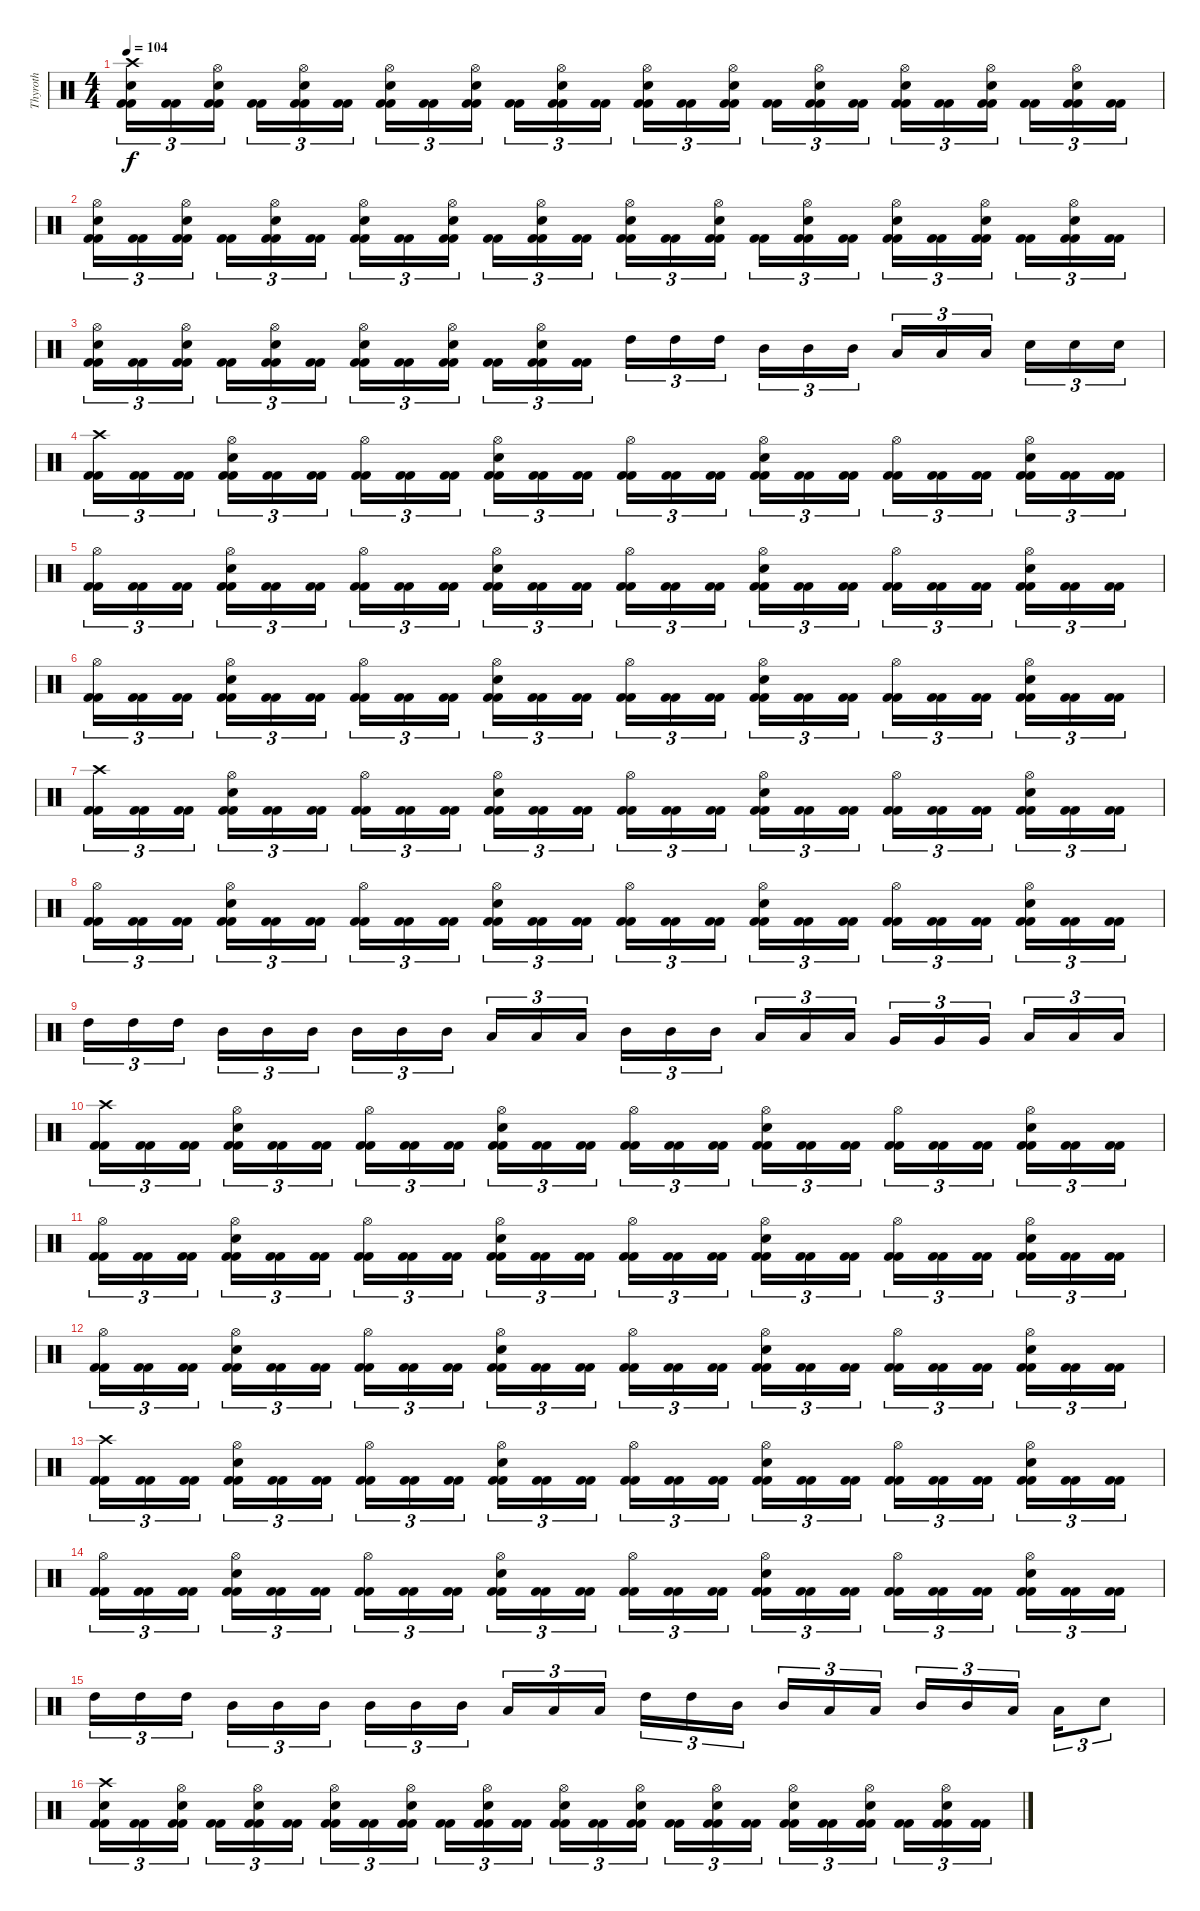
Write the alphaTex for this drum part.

\track ("Thyroth" "Thyroth") {instrument percussion}
\staff {score}
\articulation defaults
\ts (4 4)
\tempo 104
\clef neutral
\ks c
("Kick (hit) 2" "Kick (hit) 2" "Snare (hit) 2" "Crash high (hit)").16{tu (3 2) dy f} ("Kick (hit) 2" "Kick (hit) 2").16{tu (3 2)} ("Kick (hit) 2" "Kick (hit) 2" "Snare (hit) 2" "Hi-Hat (open)").16{tu (3 2)} ("Kick (hit) 2" "Kick (hit) 2").16{tu (3 2)} ("Kick (hit) 2" "Kick (hit) 2" "Snare (hit) 2" "Hi-Hat (open)").16{tu (3 2)} ("Kick (hit) 2" "Kick (hit) 2").16{tu (3 2)} ("Kick (hit) 2" "Kick (hit) 2" "Snare (hit) 2" "Hi-Hat (open)").16{tu (3 2)} ("Kick (hit) 2" "Kick (hit) 2").16{tu (3 2)} ("Kick (hit) 2" "Kick (hit) 2" "Snare (hit) 2" "Hi-Hat (open)").16{tu (3 2)} ("Kick (hit) 2" "Kick (hit) 2").16{tu (3 2)} ("Kick (hit) 2" "Kick (hit) 2" "Snare (hit) 2" "Hi-Hat (open)").16{tu (3 2)} ("Kick (hit) 2" "Kick (hit) 2").16{tu (3 2)} ("Kick (hit) 2" "Kick (hit) 2" "Snare (hit) 2" "Hi-Hat (open)").16{tu (3 2)} ("Kick (hit) 2" "Kick (hit) 2").16{tu (3 2)} ("Kick (hit) 2" "Kick (hit) 2" "Snare (hit) 2" "Hi-Hat (open)").16{tu (3 2)} ("Kick (hit) 2" "Kick (hit) 2").16{tu (3 2)} ("Kick (hit) 2" "Kick (hit) 2" "Snare (hit) 2" "Hi-Hat (open)").16{tu (3 2)} ("Kick (hit) 2" "Kick (hit) 2").16{tu (3 2)} ("Kick (hit) 2" "Kick (hit) 2" "Snare (hit) 2" "Hi-Hat (open)").16{tu (3 2)} ("Kick (hit) 2" "Kick (hit) 2").16{tu (3 2)} ("Kick (hit) 2" "Kick (hit) 2" "Snare (hit) 2" "Hi-Hat (open)").16{tu (3 2)} ("Kick (hit) 2" "Kick (hit) 2").16{tu (3 2)} ("Kick (hit) 2" "Kick (hit) 2" "Snare (hit) 2" "Hi-Hat (open)").16{tu (3 2)} ("Kick (hit) 2" "Kick (hit) 2").16{tu (3 2)} |
("Kick (hit) 2" "Kick (hit) 2" "Snare (hit) 2" "Hi-Hat (open)").16{tu (3 2)} ("Kick (hit) 2" "Kick (hit) 2").16{tu (3 2)} ("Kick (hit) 2" "Kick (hit) 2" "Snare (hit) 2" "Hi-Hat (open)").16{tu (3 2)} ("Kick (hit) 2" "Kick (hit) 2").16{tu (3 2)} ("Kick (hit) 2" "Kick (hit) 2" "Snare (hit) 2" "Hi-Hat (open)").16{tu (3 2)} ("Kick (hit) 2" "Kick (hit) 2").16{tu (3 2)} ("Kick (hit) 2" "Kick (hit) 2" "Snare (hit) 2" "Hi-Hat (open)").16{tu (3 2)} ("Kick (hit) 2" "Kick (hit) 2").16{tu (3 2)} ("Kick (hit) 2" "Kick (hit) 2" "Snare (hit) 2" "Hi-Hat (open)").16{tu (3 2)} ("Kick (hit) 2" "Kick (hit) 2").16{tu (3 2)} ("Kick (hit) 2" "Kick (hit) 2" "Snare (hit) 2" "Hi-Hat (open)").16{tu (3 2)} ("Kick (hit) 2" "Kick (hit) 2").16{tu (3 2)} ("Kick (hit) 2" "Kick (hit) 2" "Snare (hit) 2" "Hi-Hat (open)").16{tu (3 2)} ("Kick (hit) 2" "Kick (hit) 2").16{tu (3 2)} ("Kick (hit) 2" "Kick (hit) 2" "Snare (hit) 2" "Hi-Hat (open)").16{tu (3 2)} ("Kick (hit) 2" "Kick (hit) 2").16{tu (3 2)} ("Kick (hit) 2" "Kick (hit) 2" "Snare (hit) 2" "Hi-Hat (open)").16{tu (3 2)} ("Kick (hit) 2" "Kick (hit) 2").16{tu (3 2)} ("Kick (hit) 2" "Kick (hit) 2" "Snare (hit) 2" "Hi-Hat (open)").16{tu (3 2)} ("Kick (hit) 2" "Kick (hit) 2").16{tu (3 2)} ("Kick (hit) 2" "Kick (hit) 2" "Snare (hit) 2" "Hi-Hat (open)").16{tu (3 2)} ("Kick (hit) 2" "Kick (hit) 2").16{tu (3 2)} ("Kick (hit) 2" "Kick (hit) 2" "Snare (hit) 2" "Hi-Hat (open)").16{tu (3 2)} ("Kick (hit) 2" "Kick (hit) 2").16{tu (3 2)} |
("Kick (hit) 2" "Kick (hit) 2" "Snare (hit) 2" "Hi-Hat (open)").16{tu (3 2)} ("Kick (hit) 2" "Kick (hit) 2").16{tu (3 2)} ("Kick (hit) 2" "Kick (hit) 2" "Snare (hit) 2" "Hi-Hat (open)").16{tu (3 2)} ("Kick (hit) 2" "Kick (hit) 2").16{tu (3 2)} ("Kick (hit) 2" "Kick (hit) 2" "Snare (hit) 2" "Hi-Hat (open)").16{tu (3 2)} ("Kick (hit) 2" "Kick (hit) 2").16{tu (3 2)} ("Kick (hit) 2" "Kick (hit) 2" "Snare (hit) 2" "Hi-Hat (open)").16{tu (3 2)} ("Kick (hit) 2" "Kick (hit) 2").16{tu (3 2)} ("Kick (hit) 2" "Kick (hit) 2" "Snare (hit) 2" "Hi-Hat (open)").16{tu (3 2)} ("Kick (hit) 2" "Kick (hit) 2").16{tu (3 2)} ("Kick (hit) 2" "Kick (hit) 2" "Snare (hit) 2" "Hi-Hat (open)").16{tu (3 2)} ("Kick (hit) 2" "Kick (hit) 2").16{tu (3 2)} "High Tom (hit)".16{tu (3 2)} "High Tom (hit)".16{tu (3 2)} "High Tom (hit)".16{tu (3 2)} "Mid Tom (hit)".16{tu (3 2)} "Mid Tom (hit)".16{tu (3 2)} "Mid Tom (hit)".16{tu (3 2)} "Low Tom (hit)".16{tu (3 2)} "Low Tom (hit)".16{tu (3 2)} "Low Tom (hit)".16{tu (3 2)} "Snare (hit) 2".16{tu (3 2)} "Snare (hit) 2".16{tu (3 2)} "Snare (hit) 2".16{tu (3 2)} |
("Kick (hit) 2" "Kick (hit) 2" "Crash high (hit)").16{tu (3 2)} ("Kick (hit) 2" "Kick (hit) 2").16{tu (3 2)} ("Kick (hit) 2" "Kick (hit) 2").16{tu (3 2)} ("Kick (hit) 2" "Kick (hit) 2" "Snare (hit) 2" "Hi-Hat (open)").16{tu (3 2)} ("Kick (hit) 2" "Kick (hit) 2").16{tu (3 2)} ("Kick (hit) 2" "Kick (hit) 2").16{tu (3 2)} ("Kick (hit) 2" "Kick (hit) 2" "Hi-Hat (open)").16{tu (3 2)} ("Kick (hit) 2" "Kick (hit) 2").16{tu (3 2)} ("Kick (hit) 2" "Kick (hit) 2").16{tu (3 2)} ("Kick (hit) 2" "Kick (hit) 2" "Snare (hit) 2" "Hi-Hat (open)").16{tu (3 2)} ("Kick (hit) 2" "Kick (hit) 2").16{tu (3 2)} ("Kick (hit) 2" "Kick (hit) 2").16{tu (3 2)} ("Kick (hit) 2" "Kick (hit) 2" "Hi-Hat (open)").16{tu (3 2)} ("Kick (hit) 2" "Kick (hit) 2").16{tu (3 2)} ("Kick (hit) 2" "Kick (hit) 2").16{tu (3 2)} ("Kick (hit) 2" "Kick (hit) 2" "Snare (hit) 2" "Hi-Hat (open)").16{tu (3 2)} ("Kick (hit) 2" "Kick (hit) 2").16{tu (3 2)} ("Kick (hit) 2" "Kick (hit) 2").16{tu (3 2)} ("Kick (hit) 2" "Kick (hit) 2" "Hi-Hat (open)").16{tu (3 2)} ("Kick (hit) 2" "Kick (hit) 2").16{tu (3 2)} ("Kick (hit) 2" "Kick (hit) 2").16{tu (3 2)} ("Kick (hit) 2" "Kick (hit) 2" "Snare (hit) 2" "Hi-Hat (open)").16{tu (3 2)} ("Kick (hit) 2" "Kick (hit) 2").16{tu (3 2)} ("Kick (hit) 2" "Kick (hit) 2").16{tu (3 2)} |
("Kick (hit) 2" "Kick (hit) 2" "Hi-Hat (open)").16{tu (3 2)} ("Kick (hit) 2" "Kick (hit) 2").16{tu (3 2)} ("Kick (hit) 2" "Kick (hit) 2").16{tu (3 2)} ("Kick (hit) 2" "Kick (hit) 2" "Snare (hit) 2" "Hi-Hat (open)").16{tu (3 2)} ("Kick (hit) 2" "Kick (hit) 2").16{tu (3 2)} ("Kick (hit) 2" "Kick (hit) 2").16{tu (3 2)} ("Kick (hit) 2" "Kick (hit) 2" "Hi-Hat (open)").16{tu (3 2)} ("Kick (hit) 2" "Kick (hit) 2").16{tu (3 2)} ("Kick (hit) 2" "Kick (hit) 2").16{tu (3 2)} ("Kick (hit) 2" "Kick (hit) 2" "Snare (hit) 2" "Hi-Hat (open)").16{tu (3 2)} ("Kick (hit) 2" "Kick (hit) 2").16{tu (3 2)} ("Kick (hit) 2" "Kick (hit) 2").16{tu (3 2)} ("Kick (hit) 2" "Kick (hit) 2" "Hi-Hat (open)").16{tu (3 2)} ("Kick (hit) 2" "Kick (hit) 2").16{tu (3 2)} ("Kick (hit) 2" "Kick (hit) 2").16{tu (3 2)} ("Kick (hit) 2" "Kick (hit) 2" "Snare (hit) 2" "Hi-Hat (open)").16{tu (3 2)} ("Kick (hit) 2" "Kick (hit) 2").16{tu (3 2)} ("Kick (hit) 2" "Kick (hit) 2").16{tu (3 2)} ("Kick (hit) 2" "Kick (hit) 2" "Hi-Hat (open)").16{tu (3 2)} ("Kick (hit) 2" "Kick (hit) 2").16{tu (3 2)} ("Kick (hit) 2" "Kick (hit) 2").16{tu (3 2)} ("Kick (hit) 2" "Kick (hit) 2" "Snare (hit) 2" "Hi-Hat (open)").16{tu (3 2)} ("Kick (hit) 2" "Kick (hit) 2").16{tu (3 2)} ("Kick (hit) 2" "Kick (hit) 2").16{tu (3 2)} |
("Kick (hit) 2" "Kick (hit) 2" "Hi-Hat (open)").16{tu (3 2)} ("Kick (hit) 2" "Kick (hit) 2").16{tu (3 2)} ("Kick (hit) 2" "Kick (hit) 2").16{tu (3 2)} ("Kick (hit) 2" "Kick (hit) 2" "Snare (hit) 2" "Hi-Hat (open)").16{tu (3 2)} ("Kick (hit) 2" "Kick (hit) 2").16{tu (3 2)} ("Kick (hit) 2" "Kick (hit) 2").16{tu (3 2)} ("Kick (hit) 2" "Kick (hit) 2" "Hi-Hat (open)").16{tu (3 2)} ("Kick (hit) 2" "Kick (hit) 2").16{tu (3 2)} ("Kick (hit) 2" "Kick (hit) 2").16{tu (3 2)} ("Kick (hit) 2" "Kick (hit) 2" "Snare (hit) 2" "Hi-Hat (open)").16{tu (3 2)} ("Kick (hit) 2" "Kick (hit) 2").16{tu (3 2)} ("Kick (hit) 2" "Kick (hit) 2").16{tu (3 2)} ("Kick (hit) 2" "Kick (hit) 2" "Hi-Hat (open)").16{tu (3 2)} ("Kick (hit) 2" "Kick (hit) 2").16{tu (3 2)} ("Kick (hit) 2" "Kick (hit) 2").16{tu (3 2)} ("Kick (hit) 2" "Kick (hit) 2" "Snare (hit) 2" "Hi-Hat (open)").16{tu (3 2)} ("Kick (hit) 2" "Kick (hit) 2").16{tu (3 2)} ("Kick (hit) 2" "Kick (hit) 2").16{tu (3 2)} ("Kick (hit) 2" "Kick (hit) 2" "Hi-Hat (open)").16{tu (3 2)} ("Kick (hit) 2" "Kick (hit) 2").16{tu (3 2)} ("Kick (hit) 2" "Kick (hit) 2").16{tu (3 2)} ("Kick (hit) 2" "Kick (hit) 2" "Snare (hit) 2" "Hi-Hat (open)").16{tu (3 2)} ("Kick (hit) 2" "Kick (hit) 2").16{tu (3 2)} ("Kick (hit) 2" "Kick (hit) 2").16{tu (3 2)} |
("Kick (hit) 2" "Kick (hit) 2" "Crash high (hit)").16{tu (3 2)} ("Kick (hit) 2" "Kick (hit) 2").16{tu (3 2)} ("Kick (hit) 2" "Kick (hit) 2").16{tu (3 2)} ("Kick (hit) 2" "Kick (hit) 2" "Snare (hit) 2" "Hi-Hat (open)").16{tu (3 2)} ("Kick (hit) 2" "Kick (hit) 2").16{tu (3 2)} ("Kick (hit) 2" "Kick (hit) 2").16{tu (3 2)} ("Kick (hit) 2" "Kick (hit) 2" "Hi-Hat (open)").16{tu (3 2)} ("Kick (hit) 2" "Kick (hit) 2").16{tu (3 2)} ("Kick (hit) 2" "Kick (hit) 2").16{tu (3 2)} ("Kick (hit) 2" "Kick (hit) 2" "Snare (hit) 2" "Hi-Hat (open)").16{tu (3 2)} ("Kick (hit) 2" "Kick (hit) 2").16{tu (3 2)} ("Kick (hit) 2" "Kick (hit) 2").16{tu (3 2)} ("Kick (hit) 2" "Kick (hit) 2" "Hi-Hat (open)").16{tu (3 2)} ("Kick (hit) 2" "Kick (hit) 2").16{tu (3 2)} ("Kick (hit) 2" "Kick (hit) 2").16{tu (3 2)} ("Kick (hit) 2" "Kick (hit) 2" "Snare (hit) 2" "Hi-Hat (open)").16{tu (3 2)} ("Kick (hit) 2" "Kick (hit) 2").16{tu (3 2)} ("Kick (hit) 2" "Kick (hit) 2").16{tu (3 2)} ("Kick (hit) 2" "Kick (hit) 2" "Hi-Hat (open)").16{tu (3 2)} ("Kick (hit) 2" "Kick (hit) 2").16{tu (3 2)} ("Kick (hit) 2" "Kick (hit) 2").16{tu (3 2)} ("Kick (hit) 2" "Kick (hit) 2" "Snare (hit) 2" "Hi-Hat (open)").16{tu (3 2)} ("Kick (hit) 2" "Kick (hit) 2").16{tu (3 2)} ("Kick (hit) 2" "Kick (hit) 2").16{tu (3 2)} |
("Kick (hit) 2" "Kick (hit) 2" "Hi-Hat (open)").16{tu (3 2)} ("Kick (hit) 2" "Kick (hit) 2").16{tu (3 2)} ("Kick (hit) 2" "Kick (hit) 2").16{tu (3 2)} ("Kick (hit) 2" "Kick (hit) 2" "Snare (hit) 2" "Hi-Hat (open)").16{tu (3 2)} ("Kick (hit) 2" "Kick (hit) 2").16{tu (3 2)} ("Kick (hit) 2" "Kick (hit) 2").16{tu (3 2)} ("Kick (hit) 2" "Kick (hit) 2" "Hi-Hat (open)").16{tu (3 2)} ("Kick (hit) 2" "Kick (hit) 2").16{tu (3 2)} ("Kick (hit) 2" "Kick (hit) 2").16{tu (3 2)} ("Kick (hit) 2" "Kick (hit) 2" "Snare (hit) 2" "Hi-Hat (open)").16{tu (3 2)} ("Kick (hit) 2" "Kick (hit) 2").16{tu (3 2)} ("Kick (hit) 2" "Kick (hit) 2").16{tu (3 2)} ("Kick (hit) 2" "Kick (hit) 2" "Hi-Hat (open)").16{tu (3 2)} ("Kick (hit) 2" "Kick (hit) 2").16{tu (3 2)} ("Kick (hit) 2" "Kick (hit) 2").16{tu (3 2)} ("Kick (hit) 2" "Kick (hit) 2" "Snare (hit) 2" "Hi-Hat (open)").16{tu (3 2)} ("Kick (hit) 2" "Kick (hit) 2").16{tu (3 2)} ("Kick (hit) 2" "Kick (hit) 2").16{tu (3 2)} ("Kick (hit) 2" "Kick (hit) 2" "Hi-Hat (open)").16{tu (3 2)} ("Kick (hit) 2" "Kick (hit) 2").16{tu (3 2)} ("Kick (hit) 2" "Kick (hit) 2").16{tu (3 2)} ("Kick (hit) 2" "Kick (hit) 2" "Snare (hit) 2" "Hi-Hat (open)").16{tu (3 2)} ("Kick (hit) 2" "Kick (hit) 2").16{tu (3 2)} ("Kick (hit) 2" "Kick (hit) 2").16{tu (3 2)} |
"High Tom (hit)".16{tu (3 2)} "High Tom (hit)".16{tu (3 2)} "High Tom (hit)".16{tu (3 2)} "Mid Tom (hit)".16{tu (3 2)} "Mid Tom (hit)".16{tu (3 2)} "Mid Tom (hit)".16{tu (3 2)} "Mid Tom (hit)".16{tu (3 2)} "Mid Tom (hit)".16{tu (3 2)} "Mid Tom (hit)".16{tu (3 2)} "Low Tom (hit)".16{tu (3 2)} "Low Tom (hit)".16{tu (3 2)} "Low Tom (hit)".16{tu (3 2)} "Mid Tom (hit)".16{tu (3 2)} "Mid Tom (hit)".16{tu (3 2)} "Mid Tom (hit)".16{tu (3 2)} "Low Tom (hit)".16{tu (3 2)} "Low Tom (hit)".16{tu (3 2)} "Low Tom (hit)".16{tu (3 2)} "Very Low Tom (hit)".16{tu (3 2)} "Very Low Tom (hit)".16{tu (3 2)} "Very Low Tom (hit)".16{tu (3 2)} "Low Tom (hit)".16{tu (3 2)} "Low Tom (hit)".16{tu (3 2)} "Low Tom (hit)".16{tu (3 2)} |
("Kick (hit) 2" "Kick (hit) 2" "Crash high (hit)").16{tu (3 2)} ("Kick (hit) 2" "Kick (hit) 2").16{tu (3 2)} ("Kick (hit) 2" "Kick (hit) 2").16{tu (3 2)} ("Kick (hit) 2" "Kick (hit) 2" "Snare (hit) 2" "Hi-Hat (open)").16{tu (3 2)} ("Kick (hit) 2" "Kick (hit) 2").16{tu (3 2)} ("Kick (hit) 2" "Kick (hit) 2").16{tu (3 2)} ("Kick (hit) 2" "Kick (hit) 2" "Hi-Hat (open)").16{tu (3 2)} ("Kick (hit) 2" "Kick (hit) 2").16{tu (3 2)} ("Kick (hit) 2" "Kick (hit) 2").16{tu (3 2)} ("Kick (hit) 2" "Kick (hit) 2" "Snare (hit) 2" "Hi-Hat (open)").16{tu (3 2)} ("Kick (hit) 2" "Kick (hit) 2").16{tu (3 2)} ("Kick (hit) 2" "Kick (hit) 2").16{tu (3 2)} ("Kick (hit) 2" "Kick (hit) 2" "Hi-Hat (open)").16{tu (3 2)} ("Kick (hit) 2" "Kick (hit) 2").16{tu (3 2)} ("Kick (hit) 2" "Kick (hit) 2").16{tu (3 2)} ("Kick (hit) 2" "Kick (hit) 2" "Snare (hit) 2" "Hi-Hat (open)").16{tu (3 2)} ("Kick (hit) 2" "Kick (hit) 2").16{tu (3 2)} ("Kick (hit) 2" "Kick (hit) 2").16{tu (3 2)} ("Kick (hit) 2" "Kick (hit) 2" "Hi-Hat (open)").16{tu (3 2)} ("Kick (hit) 2" "Kick (hit) 2").16{tu (3 2)} ("Kick (hit) 2" "Kick (hit) 2").16{tu (3 2)} ("Kick (hit) 2" "Kick (hit) 2" "Snare (hit) 2" "Hi-Hat (open)").16{tu (3 2)} ("Kick (hit) 2" "Kick (hit) 2").16{tu (3 2)} ("Kick (hit) 2" "Kick (hit) 2").16{tu (3 2)} |
("Kick (hit) 2" "Kick (hit) 2" "Hi-Hat (open)").16{tu (3 2)} ("Kick (hit) 2" "Kick (hit) 2").16{tu (3 2)} ("Kick (hit) 2" "Kick (hit) 2").16{tu (3 2)} ("Kick (hit) 2" "Kick (hit) 2" "Snare (hit) 2" "Hi-Hat (open)").16{tu (3 2)} ("Kick (hit) 2" "Kick (hit) 2").16{tu (3 2)} ("Kick (hit) 2" "Kick (hit) 2").16{tu (3 2)} ("Kick (hit) 2" "Kick (hit) 2" "Hi-Hat (open)").16{tu (3 2)} ("Kick (hit) 2" "Kick (hit) 2").16{tu (3 2)} ("Kick (hit) 2" "Kick (hit) 2").16{tu (3 2)} ("Kick (hit) 2" "Kick (hit) 2" "Snare (hit) 2" "Hi-Hat (open)").16{tu (3 2)} ("Kick (hit) 2" "Kick (hit) 2").16{tu (3 2)} ("Kick (hit) 2" "Kick (hit) 2").16{tu (3 2)} ("Kick (hit) 2" "Kick (hit) 2" "Hi-Hat (open)").16{tu (3 2)} ("Kick (hit) 2" "Kick (hit) 2").16{tu (3 2)} ("Kick (hit) 2" "Kick (hit) 2").16{tu (3 2)} ("Kick (hit) 2" "Kick (hit) 2" "Snare (hit) 2" "Hi-Hat (open)").16{tu (3 2)} ("Kick (hit) 2" "Kick (hit) 2").16{tu (3 2)} ("Kick (hit) 2" "Kick (hit) 2").16{tu (3 2)} ("Kick (hit) 2" "Kick (hit) 2" "Hi-Hat (open)").16{tu (3 2)} ("Kick (hit) 2" "Kick (hit) 2").16{tu (3 2)} ("Kick (hit) 2" "Kick (hit) 2").16{tu (3 2)} ("Kick (hit) 2" "Kick (hit) 2" "Snare (hit) 2" "Hi-Hat (open)").16{tu (3 2)} ("Kick (hit) 2" "Kick (hit) 2").16{tu (3 2)} ("Kick (hit) 2" "Kick (hit) 2").16{tu (3 2)} |
("Kick (hit) 2" "Kick (hit) 2" "Hi-Hat (open)").16{tu (3 2)} ("Kick (hit) 2" "Kick (hit) 2").16{tu (3 2)} ("Kick (hit) 2" "Kick (hit) 2").16{tu (3 2)} ("Kick (hit) 2" "Kick (hit) 2" "Snare (hit) 2" "Hi-Hat (open)").16{tu (3 2)} ("Kick (hit) 2" "Kick (hit) 2").16{tu (3 2)} ("Kick (hit) 2" "Kick (hit) 2").16{tu (3 2)} ("Kick (hit) 2" "Kick (hit) 2" "Hi-Hat (open)").16{tu (3 2)} ("Kick (hit) 2" "Kick (hit) 2").16{tu (3 2)} ("Kick (hit) 2" "Kick (hit) 2").16{tu (3 2)} ("Kick (hit) 2" "Kick (hit) 2" "Snare (hit) 2" "Hi-Hat (open)").16{tu (3 2)} ("Kick (hit) 2" "Kick (hit) 2").16{tu (3 2)} ("Kick (hit) 2" "Kick (hit) 2").16{tu (3 2)} ("Kick (hit) 2" "Kick (hit) 2" "Hi-Hat (open)").16{tu (3 2)} ("Kick (hit) 2" "Kick (hit) 2").16{tu (3 2)} ("Kick (hit) 2" "Kick (hit) 2").16{tu (3 2)} ("Kick (hit) 2" "Kick (hit) 2" "Snare (hit) 2" "Hi-Hat (open)").16{tu (3 2)} ("Kick (hit) 2" "Kick (hit) 2").16{tu (3 2)} ("Kick (hit) 2" "Kick (hit) 2").16{tu (3 2)} ("Kick (hit) 2" "Kick (hit) 2" "Hi-Hat (open)").16{tu (3 2)} ("Kick (hit) 2" "Kick (hit) 2").16{tu (3 2)} ("Kick (hit) 2" "Kick (hit) 2").16{tu (3 2)} ("Kick (hit) 2" "Kick (hit) 2" "Snare (hit) 2" "Hi-Hat (open)").16{tu (3 2)} ("Kick (hit) 2" "Kick (hit) 2").16{tu (3 2)} ("Kick (hit) 2" "Kick (hit) 2").16{tu (3 2)} |
("Kick (hit) 2" "Kick (hit) 2" "Crash high (hit)").16{tu (3 2)} ("Kick (hit) 2" "Kick (hit) 2").16{tu (3 2)} ("Kick (hit) 2" "Kick (hit) 2").16{tu (3 2)} ("Kick (hit) 2" "Kick (hit) 2" "Snare (hit) 2" "Hi-Hat (open)").16{tu (3 2)} ("Kick (hit) 2" "Kick (hit) 2").16{tu (3 2)} ("Kick (hit) 2" "Kick (hit) 2").16{tu (3 2)} ("Kick (hit) 2" "Kick (hit) 2" "Hi-Hat (open)").16{tu (3 2)} ("Kick (hit) 2" "Kick (hit) 2").16{tu (3 2)} ("Kick (hit) 2" "Kick (hit) 2").16{tu (3 2)} ("Kick (hit) 2" "Kick (hit) 2" "Snare (hit) 2" "Hi-Hat (open)").16{tu (3 2)} ("Kick (hit) 2" "Kick (hit) 2").16{tu (3 2)} ("Kick (hit) 2" "Kick (hit) 2").16{tu (3 2)} ("Kick (hit) 2" "Kick (hit) 2" "Hi-Hat (open)").16{tu (3 2)} ("Kick (hit) 2" "Kick (hit) 2").16{tu (3 2)} ("Kick (hit) 2" "Kick (hit) 2").16{tu (3 2)} ("Kick (hit) 2" "Kick (hit) 2" "Snare (hit) 2" "Hi-Hat (open)").16{tu (3 2)} ("Kick (hit) 2" "Kick (hit) 2").16{tu (3 2)} ("Kick (hit) 2" "Kick (hit) 2").16{tu (3 2)} ("Kick (hit) 2" "Kick (hit) 2" "Hi-Hat (open)").16{tu (3 2)} ("Kick (hit) 2" "Kick (hit) 2").16{tu (3 2)} ("Kick (hit) 2" "Kick (hit) 2").16{tu (3 2)} ("Kick (hit) 2" "Kick (hit) 2" "Snare (hit) 2" "Hi-Hat (open)").16{tu (3 2)} ("Kick (hit) 2" "Kick (hit) 2").16{tu (3 2)} ("Kick (hit) 2" "Kick (hit) 2").16{tu (3 2)} |
("Kick (hit) 2" "Kick (hit) 2" "Hi-Hat (open)").16{tu (3 2)} ("Kick (hit) 2" "Kick (hit) 2").16{tu (3 2)} ("Kick (hit) 2" "Kick (hit) 2").16{tu (3 2)} ("Kick (hit) 2" "Kick (hit) 2" "Snare (hit) 2" "Hi-Hat (open)").16{tu (3 2)} ("Kick (hit) 2" "Kick (hit) 2").16{tu (3 2)} ("Kick (hit) 2" "Kick (hit) 2").16{tu (3 2)} ("Kick (hit) 2" "Kick (hit) 2" "Hi-Hat (open)").16{tu (3 2)} ("Kick (hit) 2" "Kick (hit) 2").16{tu (3 2)} ("Kick (hit) 2" "Kick (hit) 2").16{tu (3 2)} ("Kick (hit) 2" "Kick (hit) 2" "Snare (hit) 2" "Hi-Hat (open)").16{tu (3 2)} ("Kick (hit) 2" "Kick (hit) 2").16{tu (3 2)} ("Kick (hit) 2" "Kick (hit) 2").16{tu (3 2)} ("Kick (hit) 2" "Kick (hit) 2" "Hi-Hat (open)").16{tu (3 2)} ("Kick (hit) 2" "Kick (hit) 2").16{tu (3 2)} ("Kick (hit) 2" "Kick (hit) 2").16{tu (3 2)} ("Kick (hit) 2" "Kick (hit) 2" "Snare (hit) 2" "Hi-Hat (open)").16{tu (3 2)} ("Kick (hit) 2" "Kick (hit) 2").16{tu (3 2)} ("Kick (hit) 2" "Kick (hit) 2").16{tu (3 2)} ("Kick (hit) 2" "Kick (hit) 2" "Hi-Hat (open)").16{tu (3 2)} ("Kick (hit) 2" "Kick (hit) 2").16{tu (3 2)} ("Kick (hit) 2" "Kick (hit) 2").16{tu (3 2)} ("Kick (hit) 2" "Kick (hit) 2" "Snare (hit) 2" "Hi-Hat (open)").16{tu (3 2)} ("Kick (hit) 2" "Kick (hit) 2").16{tu (3 2)} ("Kick (hit) 2" "Kick (hit) 2").16{tu (3 2)} |
"High Tom (hit)".16{tu (3 2)} "High Tom (hit)".16{tu (3 2)} "High Tom (hit)".16{tu (3 2)} "Mid Tom (hit)".16{tu (3 2)} "Mid Tom (hit)".16{tu (3 2)} "Mid Tom (hit)".16{tu (3 2)} "Mid Tom (hit)".16{tu (3 2)} "Mid Tom (hit)".16{tu (3 2)} "Mid Tom (hit)".16{tu (3 2)} "Low Tom (hit)".16{tu (3 2)} "Low Tom (hit)".16{tu (3 2)} "Low Tom (hit)".16{tu (3 2)} "High Tom (hit)".16{tu (3 2)} "High Tom (hit)".16{tu (3 2)} "Mid Tom (hit)".16{tu (3 2)} "Mid Tom (hit)".16{tu (3 2)} "Low Tom (hit)".16{tu (3 2)} "Low Tom (hit)".16{tu (3 2)} "Mid Tom (hit)".16{tu (3 2)} "Mid Tom (hit)".16{tu (3 2)} "Low Tom (hit)".16{tu (3 2)} "Low Tom (hit)".16{tu (3 2)} "Snare (hit) 2".8{tu (3 2)} |
("Kick (hit) 2" "Kick (hit) 2" "Snare (hit) 2" "Crash high (hit)").16{tu (3 2)} ("Kick (hit) 2" "Kick (hit) 2").16{tu (3 2)} ("Kick (hit) 2" "Kick (hit) 2" "Snare (hit) 2" "Hi-Hat (open)").16{tu (3 2)} ("Kick (hit) 2" "Kick (hit) 2").16{tu (3 2)} ("Kick (hit) 2" "Kick (hit) 2" "Snare (hit) 2" "Hi-Hat (open)").16{tu (3 2)} ("Kick (hit) 2" "Kick (hit) 2").16{tu (3 2)} ("Kick (hit) 2" "Kick (hit) 2" "Snare (hit) 2" "Hi-Hat (open)").16{tu (3 2)} ("Kick (hit) 2" "Kick (hit) 2").16{tu (3 2)} ("Kick (hit) 2" "Kick (hit) 2" "Snare (hit) 2" "Hi-Hat (open)").16{tu (3 2)} ("Kick (hit) 2" "Kick (hit) 2").16{tu (3 2)} ("Kick (hit) 2" "Kick (hit) 2" "Snare (hit) 2" "Hi-Hat (open)").16{tu (3 2)} ("Kick (hit) 2" "Kick (hit) 2").16{tu (3 2)} ("Kick (hit) 2" "Kick (hit) 2" "Snare (hit) 2" "Hi-Hat (open)").16{tu (3 2)} ("Kick (hit) 2" "Kick (hit) 2").16{tu (3 2)} ("Kick (hit) 2" "Kick (hit) 2" "Snare (hit) 2" "Hi-Hat (open)").16{tu (3 2)} ("Kick (hit) 2" "Kick (hit) 2").16{tu (3 2)} ("Kick (hit) 2" "Kick (hit) 2" "Snare (hit) 2" "Hi-Hat (open)").16{tu (3 2)} ("Kick (hit) 2" "Kick (hit) 2").16{tu (3 2)} ("Kick (hit) 2" "Kick (hit) 2" "Snare (hit) 2" "Hi-Hat (open)").16{tu (3 2)} ("Kick (hit) 2" "Kick (hit) 2").16{tu (3 2)} ("Kick (hit) 2" "Kick (hit) 2" "Snare (hit) 2" "Hi-Hat (open)").16{tu (3 2)} ("Kick (hit) 2" "Kick (hit) 2").16{tu (3 2)} ("Kick (hit) 2" "Kick (hit) 2" "Snare (hit) 2" "Hi-Hat (open)").16{tu (3 2)} ("Kick (hit) 2" "Kick (hit) 2").16{tu (3 2)}
